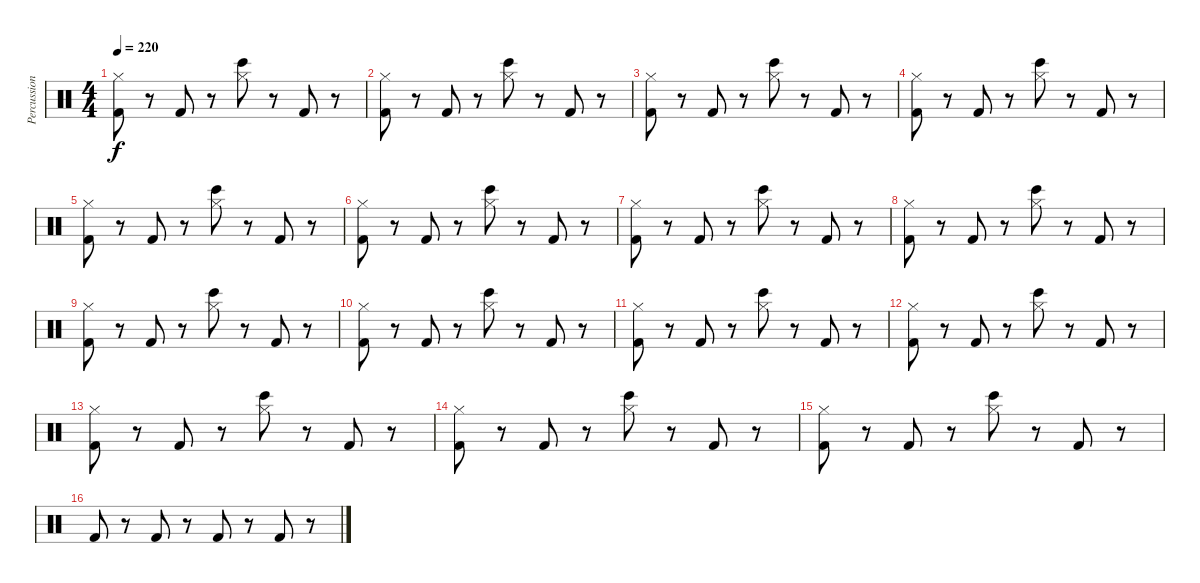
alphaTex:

\track ("Percussion" "Percussion") {instrument percussion}
\staff {score}
\articulation defaults
\ts (4 4)
\tempo 220
\clef neutral
\ks c
("Kick (hit) 2" "Hi-Hat (closed)").8{dy f} r.8 "Kick (hit) 2".8 r.8 ("Bongo High (hit)" "Hi-Hat (closed)").8 r.8 "Kick (hit) 2".8 r.8 |
("Kick (hit) 2" "Hi-Hat (closed)").8 r.8 "Kick (hit) 2".8 r.8 ("Bongo High (hit)" "Hi-Hat (closed)").8 r.8 "Kick (hit) 2".8 r.8 |
("Kick (hit) 2" "Hi-Hat (closed)").8 r.8 "Kick (hit) 2".8 r.8 ("Bongo High (hit)" "Hi-Hat (closed)").8 r.8 "Kick (hit) 2".8 r.8 |
("Kick (hit) 2" "Hi-Hat (closed)").8 r.8 "Kick (hit) 2".8 r.8 ("Bongo High (hit)" "Hi-Hat (closed)").8 r.8 "Kick (hit) 2".8 r.8 |
("Kick (hit) 2" "Hi-Hat (closed)").8 r.8 "Kick (hit) 2".8 r.8 ("Bongo High (hit)" "Hi-Hat (closed)").8 r.8 "Kick (hit) 2".8 r.8 |
("Kick (hit) 2" "Hi-Hat (closed)").8 r.8 "Kick (hit) 2".8 r.8 ("Bongo High (hit)" "Hi-Hat (closed)").8 r.8 "Kick (hit) 2".8 r.8 |
("Kick (hit) 2" "Hi-Hat (closed)").8 r.8 "Kick (hit) 2".8 r.8 ("Bongo High (hit)" "Hi-Hat (closed)").8 r.8 "Kick (hit) 2".8 r.8 |
("Kick (hit) 2" "Hi-Hat (closed)").8 r.8 "Kick (hit) 2".8 r.8 ("Bongo High (hit)" "Hi-Hat (closed)").8 r.8 "Kick (hit) 2".8 r.8 |
("Kick (hit) 2" "Hi-Hat (closed)").8 r.8 "Kick (hit) 2".8 r.8 ("Bongo High (hit)" "Hi-Hat (closed)").8 r.8 "Kick (hit) 2".8 r.8 |
("Kick (hit) 2" "Hi-Hat (closed)").8 r.8 "Kick (hit) 2".8 r.8 ("Bongo High (hit)" "Hi-Hat (closed)").8 r.8 "Kick (hit) 2".8 r.8 |
("Kick (hit) 2" "Hi-Hat (closed)").8 r.8 "Kick (hit) 2".8 r.8 ("Bongo High (hit)" "Hi-Hat (closed)").8 r.8 "Kick (hit) 2".8 r.8 |
("Kick (hit) 2" "Hi-Hat (closed)").8 r.8 "Kick (hit) 2".8 r.8 ("Bongo High (hit)" "Hi-Hat (closed)").8 r.8 "Kick (hit) 2".8 r.8 |
("Kick (hit) 2" "Hi-Hat (closed)").8 r.8 "Kick (hit) 2".8 r.8 ("Bongo High (hit)" "Hi-Hat (closed)").8 r.8 "Kick (hit) 2".8 r.8 |
("Kick (hit) 2" "Hi-Hat (closed)").8 r.8 "Kick (hit) 2".8 r.8 ("Bongo High (hit)" "Hi-Hat (closed)").8 r.8 "Kick (hit) 2".8 r.8 |
("Kick (hit) 2" "Hi-Hat (closed)").8 r.8 "Kick (hit) 2".8 r.8 ("Bongo High (hit)" "Hi-Hat (closed)").8 r.8 "Kick (hit) 2".8 r.8 |
"Kick (hit) 2".8 r.8 "Kick (hit) 2".8 r.8 "Kick (hit) 2".8 r.8 "Kick (hit) 2".8 r.8
